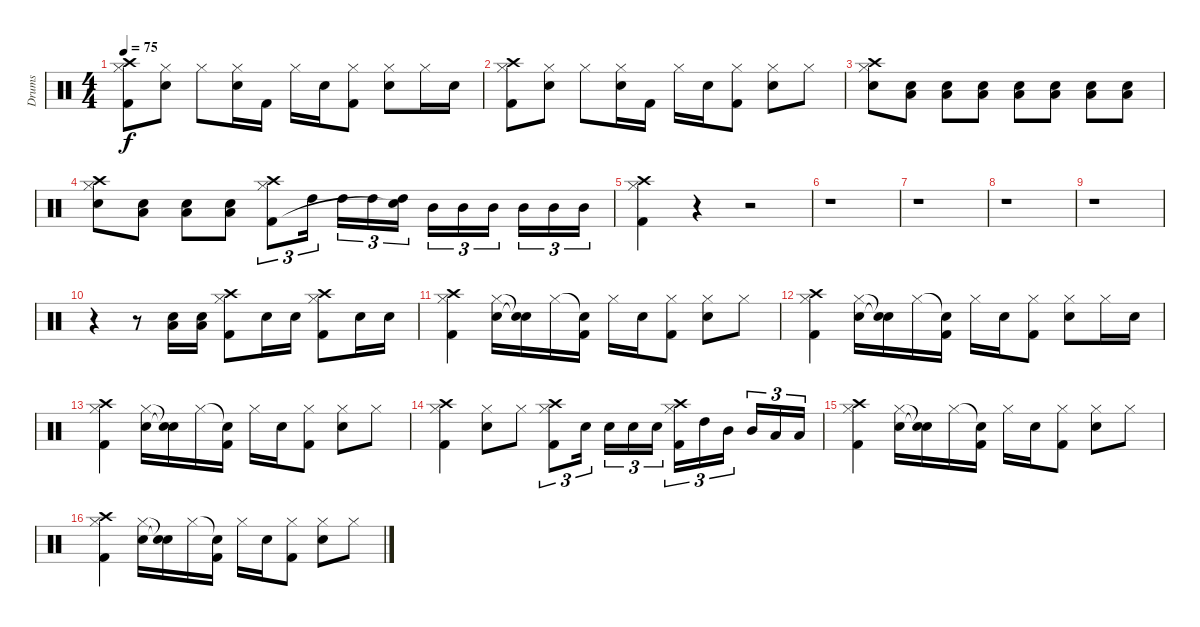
\track ("Drums" "Drums") {instrument percussion}
\staff {score}
\articulation defaults
\ts (4 4)
\tempo 75
\clef neutral
\ks c
("Crash high (hit)" "Hi-Hat (closed)" "Kick (hit) 2").8{dy f} ("Hi-Hat (closed)" "Electric Snare (hit)").8 "Hi-Hat (closed)".8 ("Hi-Hat (closed)" "Electric Snare (hit)").16 "Kick (hit) 2".16 "Hi-Hat (closed)".16 "Electric Snare (hit)".16 ("Hi-Hat (closed)" "Kick (hit) 2").8 ("Hi-Hat (closed)" "Electric Snare (hit)").8 "Hi-Hat (closed)".16 "Electric Snare (hit)".16 |
("Crash high (hit)" "Hi-Hat (closed)" "Kick (hit) 2").8 ("Hi-Hat (closed)" "Electric Snare (hit)").8 "Hi-Hat (closed)".8 ("Hi-Hat (closed)" "Electric Snare (hit)").16 "Kick (hit) 2".16 "Hi-Hat (closed)".16 "Electric Snare (hit)".16 ("Hi-Hat (closed)" "Kick (hit) 2").8 ("Hi-Hat (closed)" "Electric Snare (hit)").8 "Hi-Hat (closed)".8 |
("Crash high (hit)" "Hi-Hat (closed)" "Electric Snare (hit)").8 ("Low Tom (hit)" "Electric Snare (hit)").8 ("Low Tom (hit)" "Electric Snare (hit)").8 ("Low Tom (hit)" "Electric Snare (hit)").8 ("Low Tom (hit)" "Electric Snare (hit)").8 ("Low Tom (hit)" "Electric Snare (hit)").8 ("Low Tom (hit)" "Electric Snare (hit)").8 ("Low Tom (hit)" "Electric Snare (hit)").8 |
("Hi-Hat (closed)" "Electric Snare (hit)" "Crash high (hit)").8 ("Electric Snare (hit)" "Low Tom (hit)").8 ("Electric Snare (hit)" "Low Tom (hit)").8 ("Electric Snare (hit)" "Low Tom (hit)").8 ("Crash high (hit)" "Kick (hit) 2" "Hi-Hat (closed)").8{tu (3 2)} "High Tom (hit)".16{tu (3 2)} "High Tom (hit)".16{tu (3 2)} "High Tom (hit)".16{tu (3 2)} ("High Tom (hit)" "Snare (hit)"{t}).16{tu (3 2)} "Mid Tom (hit)".16{tu (3 2)} "Mid Tom (hit)".16{tu (3 2)} "Mid Tom (hit)".16{tu (3 2)} "Mid Tom (hit)".16{tu (3 2)} "Mid Tom (hit)".16{tu (3 2)} "Mid Tom (hit)".16{tu (3 2)} |
("Hi-Hat (closed)" "Crash high (hit)" "Kick (hit) 2").4 r.4 r.2 |
r.1 |
r.1 |
r.1 |
r.1 |
r.4 r.8 ("Electric Snare (hit)" "Low Tom (hit)").16 ("Electric Snare (hit)" "Low Tom (hit)").16 ("Crash high (hit)" "Kick (hit) 2" "Hi-Hat (closed)").8 "Electric Snare (hit)".16 "Electric Snare (hit)".16 ("Crash high (hit)" "Kick (hit) 2" "Hi-Hat (closed)").8 "Electric Snare (hit)".16 "Electric Snare (hit)".16 |
("Hi-Hat (closed)" "Kick (hit) 2" "Crash high (hit)").4 ("Hi-Hat (closed)" "Electric Snare (hit)").16 ("Snare (hit)"{t} "Snare (hit)"{t}).16 "Hi-Hat (closed)".16 ("Snare (hit)"{t} "Kick (hit) 2").16 "Hi-Hat (closed)".16 "Electric Snare (hit)".16 ("Hi-Hat (closed)" "Kick (hit) 2").8 ("Electric Snare (hit)" "Hi-Hat (closed)").8 "Hi-Hat (closed)".8 |
("Hi-Hat (closed)" "Kick (hit) 2" "Crash high (hit)").4 ("Hi-Hat (closed)" "Electric Snare (hit)").16 ("Snare (hit)"{t} "Snare (hit)"{t}).16 "Hi-Hat (closed)".16 ("Snare (hit)"{t} "Kick (hit) 2").16 "Hi-Hat (closed)".16 "Electric Snare (hit)".16 ("Hi-Hat (closed)" "Kick (hit) 2").8 ("Electric Snare (hit)" "Hi-Hat (closed)").8 "Hi-Hat (closed)".16 "Electric Snare (hit)".16 |
("Hi-Hat (closed)" "Kick (hit) 2" "Crash high (hit)").4 ("Hi-Hat (closed)" "Electric Snare (hit)").16 ("Snare (hit)"{t} "Snare (hit)"{t}).16 "Hi-Hat (closed)".16 ("Snare (hit)"{t} "Kick (hit) 2").16 "Hi-Hat (closed)".16 "Electric Snare (hit)".16 ("Hi-Hat (closed)" "Kick (hit) 2").8 ("Electric Snare (hit)" "Hi-Hat (closed)").8 "Hi-Hat (closed)".8 |
("Crash high (hit)" "Kick (hit) 2" "Hi-Hat (closed)").4 ("Hi-Hat (closed)" "Electric Snare (hit)").8 "Hi-Hat (closed)".8 ("Hi-Hat (closed)" "Crash high (hit)" "Kick (hit) 2").8{tu (3 2)} "Electric Snare (hit)".16{tu (3 2)} "Electric Snare (hit)".16{tu (3 2)} "Electric Snare (hit)".16{tu (3 2)} "Electric Snare (hit)".16{tu (3 2)} ("Crash high (hit)" "Hi-Hat (closed)" "Kick (hit) 2").16{tu (3 2)} "High Tom (hit)".16{tu (3 2)} "Mid Tom (hit)".16{tu (3 2)} "Mid Tom (hit)".16{tu (3 2)} "Low Tom (hit)".16{tu (3 2)} "Low Tom (hit)".16{tu (3 2)} |
("Hi-Hat (closed)" "Kick (hit) 2" "Crash high (hit)").4 ("Hi-Hat (closed)" "Electric Snare (hit)").16 ("Snare (hit)"{t} "Snare (hit)"{t}).16 "Hi-Hat (closed)".16 ("Snare (hit)"{t} "Kick (hit) 2").16 "Hi-Hat (closed)".16 "Electric Snare (hit)".16 ("Hi-Hat (closed)" "Kick (hit) 2").8 ("Electric Snare (hit)" "Hi-Hat (closed)").8 "Hi-Hat (closed)".8 |
("Hi-Hat (closed)" "Kick (hit) 2" "Crash high (hit)").4 ("Hi-Hat (closed)" "Electric Snare (hit)").16 ("Snare (hit)"{t} "Snare (hit)"{t}).16 "Hi-Hat (closed)".16 ("Snare (hit)"{t} "Kick (hit) 2").16 "Hi-Hat (closed)".16 "Electric Snare (hit)".16 ("Hi-Hat (closed)" "Kick (hit) 2").8 ("Electric Snare (hit)" "Hi-Hat (closed)").8 "Hi-Hat (closed)".8
